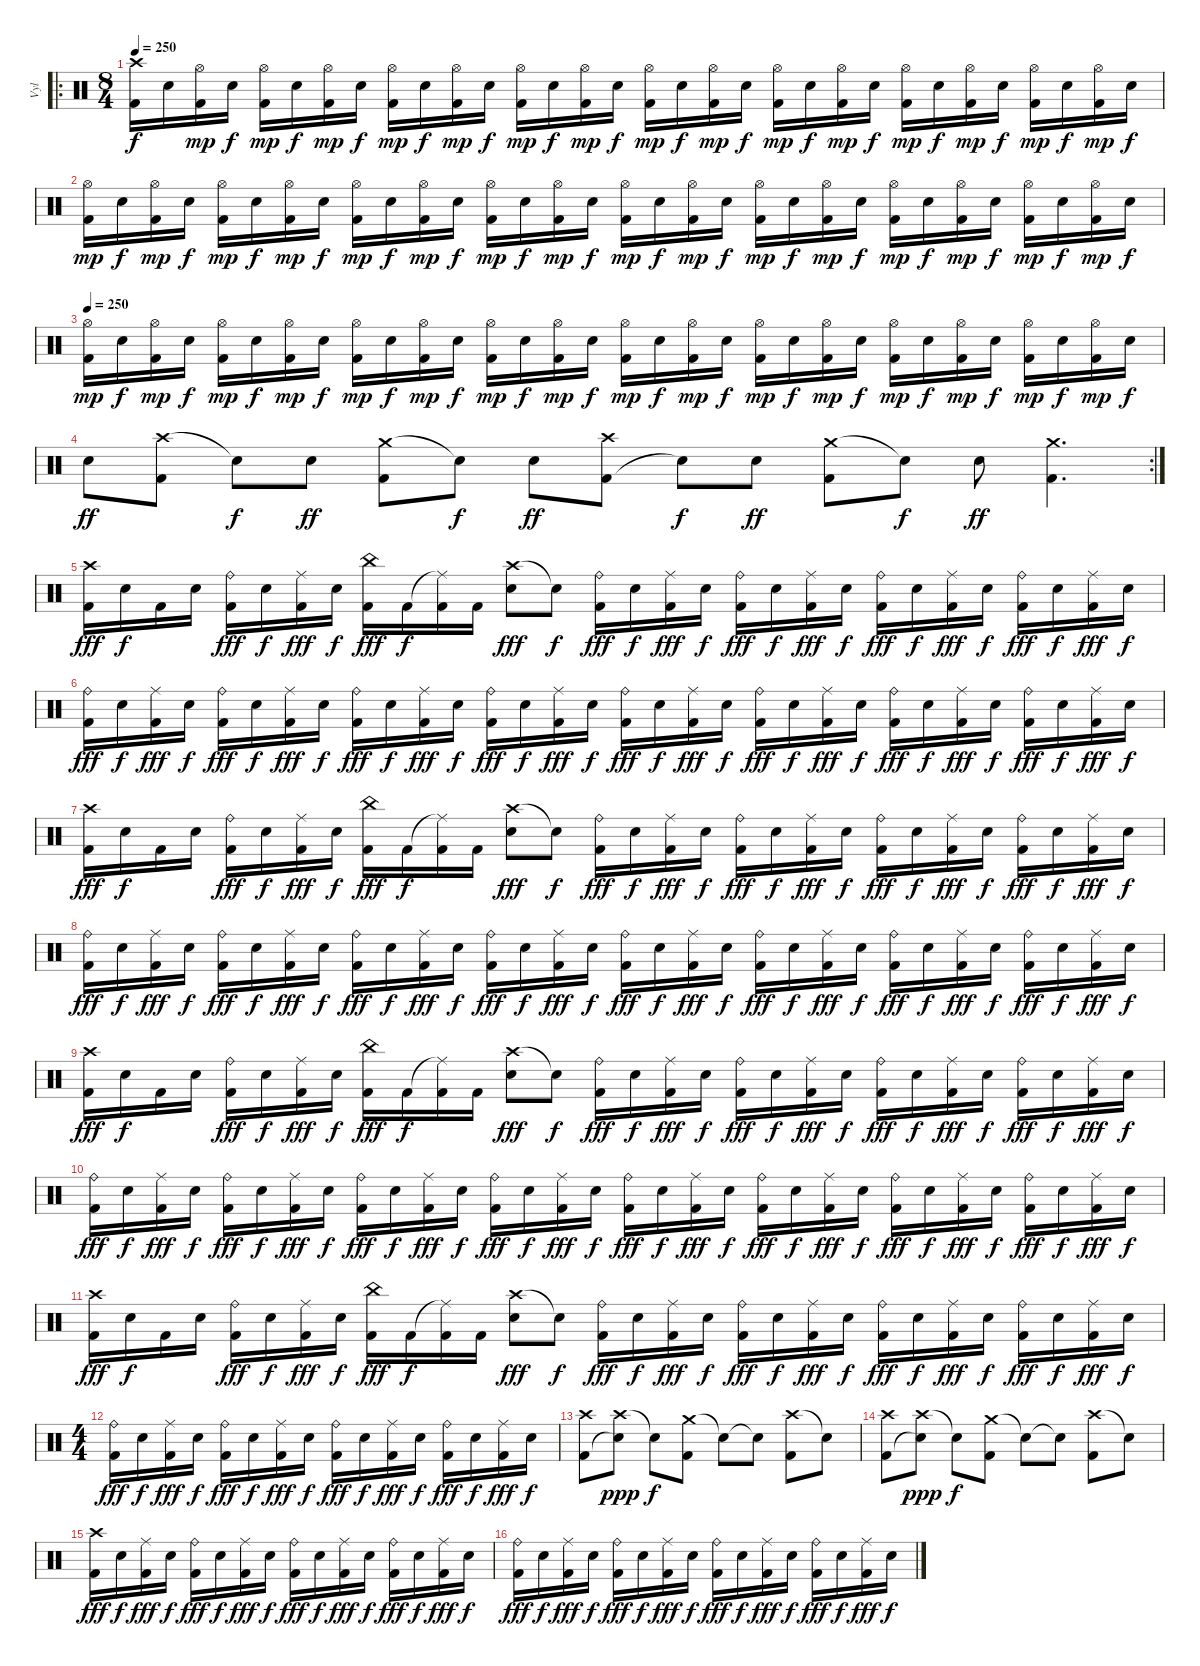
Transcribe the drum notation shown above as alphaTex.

\track ("Vyl" "Vyl") {instrument percussion}
\staff {score}
\articulation defaults
\ro
\ts (8 4)
\tempo 250
\clef neutral
\ks c
("Crash high (hit)" "Kick (hit) 2").16{dy f} "Snare (hit) 2".16 ("Hi-Hat (open)" "Kick (hit) 2").16{dy mp} "Snare (hit) 2".16{dy f} ("Hi-Hat (open)" "Kick (hit) 2").16{dy mp} "Snare (hit) 2".16{dy f} ("Hi-Hat (open)" "Kick (hit) 2").16{dy mp} "Snare (hit) 2".16{dy f} ("Hi-Hat (open)" "Kick (hit) 2").16{dy mp} "Snare (hit) 2".16{dy f} ("Hi-Hat (open)" "Kick (hit) 2").16{dy mp} "Snare (hit) 2".16{dy f} ("Hi-Hat (open)" "Kick (hit) 2").16{dy mp} "Snare (hit) 2".16{dy f} ("Hi-Hat (open)" "Kick (hit) 2").16{dy mp} "Snare (hit) 2".16{dy f} ("Hi-Hat (open)" "Kick (hit) 2").16{dy mp} "Snare (hit) 2".16{dy f} ("Hi-Hat (open)" "Kick (hit) 2").16{dy mp} "Snare (hit) 2".16{dy f} ("Hi-Hat (open)" "Kick (hit) 2").16{dy mp} "Snare (hit) 2".16{dy f} ("Hi-Hat (open)" "Kick (hit) 2").16{dy mp} "Snare (hit) 2".16{dy f} ("Hi-Hat (open)" "Kick (hit) 2").16{dy mp} "Snare (hit) 2".16{dy f} ("Hi-Hat (open)" "Kick (hit) 2").16{dy mp} "Snare (hit) 2".16{dy f} ("Hi-Hat (open)" "Kick (hit) 2").16{dy mp} "Snare (hit) 2".16{dy f} ("Hi-Hat (open)" "Kick (hit) 2").16{dy mp} "Snare (hit) 2".16{dy f} |
("Hi-Hat (open)" "Kick (hit) 2").16{dy mp} "Snare (hit) 2".16{dy f} ("Hi-Hat (open)" "Kick (hit) 2").16{dy mp} "Snare (hit) 2".16{dy f} ("Hi-Hat (open)" "Kick (hit) 2").16{dy mp} "Snare (hit) 2".16{dy f} ("Hi-Hat (open)" "Kick (hit) 2").16{dy mp} "Snare (hit) 2".16{dy f} ("Hi-Hat (open)" "Kick (hit) 2").16{dy mp} "Snare (hit) 2".16{dy f} ("Hi-Hat (open)" "Kick (hit) 2").16{dy mp} "Snare (hit) 2".16{dy f} ("Hi-Hat (open)" "Kick (hit) 2").16{dy mp} "Snare (hit) 2".16{dy f} ("Hi-Hat (open)" "Kick (hit) 2").16{dy mp} "Snare (hit) 2".16{dy f} ("Hi-Hat (open)" "Kick (hit) 2").16{dy mp} "Snare (hit) 2".16{dy f} ("Hi-Hat (open)" "Kick (hit) 2").16{dy mp} "Snare (hit) 2".16{dy f} ("Hi-Hat (open)" "Kick (hit) 2").16{dy mp} "Snare (hit) 2".16{dy f} ("Hi-Hat (open)" "Kick (hit) 2").16{dy mp} "Snare (hit) 2".16{dy f} ("Hi-Hat (open)" "Kick (hit) 2").16{dy mp} "Snare (hit) 2".16{dy f} ("Hi-Hat (open)" "Kick (hit) 2").16{dy mp} "Snare (hit) 2".16{dy f} ("Hi-Hat (open)" "Kick (hit) 2").16{dy mp} "Snare (hit) 2".16{dy f} ("Hi-Hat (open)" "Kick (hit) 2").16{dy mp} "Snare (hit) 2".16{dy f} |
\tempo 250
("Hi-Hat (open)" "Kick (hit) 2").16{dy mp} "Snare (hit) 2".16{dy f} ("Hi-Hat (open)" "Kick (hit) 2").16{dy mp} "Snare (hit) 2".16{dy f} ("Hi-Hat (open)" "Kick (hit) 2").16{dy mp} "Snare (hit) 2".16{dy f} ("Hi-Hat (open)" "Kick (hit) 2").16{dy mp} "Snare (hit) 2".16{dy f} ("Hi-Hat (open)" "Kick (hit) 2").16{dy mp} "Snare (hit) 2".16{dy f} ("Hi-Hat (open)" "Kick (hit) 2").16{dy mp} "Snare (hit) 2".16{dy f} ("Hi-Hat (open)" "Kick (hit) 2").16{dy mp} "Snare (hit) 2".16{dy f} ("Hi-Hat (open)" "Kick (hit) 2").16{dy mp} "Snare (hit) 2".16{dy f} ("Hi-Hat (open)" "Kick (hit) 2").16{dy mp} "Snare (hit) 2".16{dy f} ("Hi-Hat (open)" "Kick (hit) 2").16{dy mp} "Snare (hit) 2".16{dy f} ("Hi-Hat (open)" "Kick (hit) 2").16{dy mp} "Snare (hit) 2".16{dy f} ("Hi-Hat (open)" "Kick (hit) 2").16{dy mp} "Snare (hit) 2".16{dy f} ("Hi-Hat (open)" "Kick (hit) 2").16{dy mp} "Snare (hit) 2".16{dy f} ("Hi-Hat (open)" "Kick (hit) 2").16{dy mp} "Snare (hit) 2".16{dy f} ("Hi-Hat (open)" "Kick (hit) 2").16{dy mp} "Snare (hit) 2".16{dy f} ("Hi-Hat (open)" "Kick (hit) 2").16{dy mp} "Snare (hit) 2".16{dy f} |
\rc 2 "Snare (hit) 2".8{dy ff}
("Crash high (hit)" "Kick (hit) 2").8 "Snare (hit)"{t}.8{dy f} "Snare (hit) 2".8{dy ff} ("Crash medium (hit)" "Kick (hit) 2").8 "Snare (hit)"{t}.8{dy f} "Snare (hit) 2".8{dy ff} ("Kick (hit) 2" "Crash high (hit)").8 "Snare (hit)"{t}.8{dy f} "Snare (hit) 2".8{dy ff} ("Crash medium (hit)" "Kick (hit) 2").8 "Snare (hit) 2"{t}.8{dy f} "Snare (hit) 2".8{dy ff} ("Kick (hit) 2" "Crash medium (hit)").4{d} |
("Crash high (hit)" "Kick (hit) 2").16{dy fff} "Snare (hit) 2".16{dy f} "Kick (hit) 2".16 "Snare (hit) 2".16 ("Ride (bell)" "Kick (hit) 2").16{dy fff} "Snare (hit) 2".16{dy f} ("Ride (middle)" "Kick (hit) 2").16{dy fff} "Snare (hit) 2".16{dy f} ("China (hit)" "Kick (hit) 2").16{dy fff} "Kick (hit) 2".16{dy f} ("Ride (middle)"{t} "Kick (hit) 2").16 "Kick (hit) 2".16 ("Crash high (hit)" "Snare (hit) 2").8{dy fff} "Snare (hit) 2"{t}.8{dy f} ("Ride (bell)" "Kick (hit) 2").16{dy fff} "Snare (hit) 2".16{dy f} ("Ride (middle)" "Kick (hit) 2").16{dy fff} "Snare (hit) 2".16{dy f} ("Ride (bell)" "Kick (hit) 2").16{dy fff} "Snare (hit) 2".16{dy f} ("Ride (middle)" "Kick (hit) 2").16{dy fff} "Snare (hit) 2".16{dy f} ("Ride (bell)" "Kick (hit) 2").16{dy fff} "Snare (hit) 2".16{dy f} ("Ride (middle)" "Kick (hit) 2").16{dy fff} "Snare (hit) 2".16{dy f} ("Ride (bell)" "Kick (hit) 2").16{dy fff} "Snare (hit) 2".16{dy f} ("Ride (middle)" "Kick (hit) 2").16{dy fff} "Snare (hit) 2".16{dy f} |
("Ride (bell)" "Kick (hit) 2").16{dy fff} "Snare (hit) 2".16{dy f} ("Ride (middle)" "Kick (hit) 2").16{dy fff} "Snare (hit) 2".16{dy f} ("Ride (bell)" "Kick (hit) 2").16{dy fff} "Snare (hit) 2".16{dy f} ("Ride (middle)" "Kick (hit) 2").16{dy fff} "Snare (hit) 2".16{dy f} ("Ride (bell)" "Kick (hit) 2").16{dy fff} "Snare (hit) 2".16{dy f} ("Ride (middle)" "Kick (hit) 2").16{dy fff} "Snare (hit) 2".16{dy f} ("Ride (bell)" "Kick (hit) 2").16{dy fff} "Snare (hit) 2".16{dy f} ("Ride (middle)" "Kick (hit) 2").16{dy fff} "Snare (hit) 2".16{dy f} ("Ride (bell)" "Kick (hit) 2").16{dy fff} "Snare (hit) 2".16{dy f} ("Ride (middle)" "Kick (hit) 2").16{dy fff} "Snare (hit) 2".16{dy f} ("Ride (bell)" "Kick (hit) 2").16{dy fff} "Snare (hit) 2".16{dy f} ("Ride (middle)" "Kick (hit) 2").16{dy fff} "Snare (hit) 2".16{dy f} ("Ride (bell)" "Kick (hit) 2").16{dy fff} "Snare (hit) 2".16{dy f} ("Ride (middle)" "Kick (hit) 2").16{dy fff} "Snare (hit) 2".16{dy f} ("Ride (bell)" "Kick (hit) 2").16{dy fff} "Snare (hit) 2".16{dy f} ("Ride (middle)" "Kick (hit) 2").16{dy fff} "Snare (hit) 2".16{dy f} |
("Crash high (hit)" "Kick (hit) 2").16{dy fff} "Snare (hit) 2".16{dy f} "Kick (hit) 2".16 "Snare (hit) 2".16 ("Ride (bell)" "Kick (hit) 2").16{dy fff} "Snare (hit) 2".16{dy f} ("Ride (middle)" "Kick (hit) 2").16{dy fff} "Snare (hit) 2".16{dy f} ("China (hit)" "Kick (hit) 2").16{dy fff} "Kick (hit) 2".16{dy f} ("Ride (middle)"{t} "Kick (hit) 2").16 "Kick (hit) 2".16 ("Crash high (hit)" "Snare (hit) 2").8{dy fff} "Snare (hit) 2"{t}.8{dy f} ("Ride (bell)" "Kick (hit) 2").16{dy fff} "Snare (hit) 2".16{dy f} ("Ride (middle)" "Kick (hit) 2").16{dy fff} "Snare (hit) 2".16{dy f} ("Ride (bell)" "Kick (hit) 2").16{dy fff} "Snare (hit) 2".16{dy f} ("Ride (middle)" "Kick (hit) 2").16{dy fff} "Snare (hit) 2".16{dy f} ("Ride (bell)" "Kick (hit) 2").16{dy fff} "Snare (hit) 2".16{dy f} ("Ride (middle)" "Kick (hit) 2").16{dy fff} "Snare (hit) 2".16{dy f} ("Ride (bell)" "Kick (hit) 2").16{dy fff} "Snare (hit) 2".16{dy f} ("Ride (middle)" "Kick (hit) 2").16{dy fff} "Snare (hit) 2".16{dy f} |
("Ride (bell)" "Kick (hit) 2").16{dy fff} "Snare (hit) 2".16{dy f} ("Ride (middle)" "Kick (hit) 2").16{dy fff} "Snare (hit) 2".16{dy f} ("Ride (bell)" "Kick (hit) 2").16{dy fff} "Snare (hit) 2".16{dy f} ("Ride (middle)" "Kick (hit) 2").16{dy fff} "Snare (hit) 2".16{dy f} ("Ride (bell)" "Kick (hit) 2").16{dy fff} "Snare (hit) 2".16{dy f} ("Ride (middle)" "Kick (hit) 2").16{dy fff} "Snare (hit) 2".16{dy f} ("Ride (bell)" "Kick (hit) 2").16{dy fff} "Snare (hit) 2".16{dy f} ("Ride (middle)" "Kick (hit) 2").16{dy fff} "Snare (hit) 2".16{dy f} ("Ride (bell)" "Kick (hit) 2").16{dy fff} "Snare (hit) 2".16{dy f} ("Ride (middle)" "Kick (hit) 2").16{dy fff} "Snare (hit) 2".16{dy f} ("Ride (bell)" "Kick (hit) 2").16{dy fff} "Snare (hit) 2".16{dy f} ("Ride (middle)" "Kick (hit) 2").16{dy fff} "Snare (hit) 2".16{dy f} ("Ride (bell)" "Kick (hit) 2").16{dy fff} "Snare (hit) 2".16{dy f} ("Ride (middle)" "Kick (hit) 2").16{dy fff} "Snare (hit) 2".16{dy f} ("Ride (bell)" "Kick (hit) 2").16{dy fff} "Snare (hit) 2".16{dy f} ("Ride (middle)" "Kick (hit) 2").16{dy fff} "Snare (hit) 2".16{dy f} |
("Crash high (hit)" "Kick (hit) 2").16{dy fff} "Snare (hit) 2".16{dy f} "Kick (hit) 2".16 "Snare (hit) 2".16 ("Ride (bell)" "Kick (hit) 2").16{dy fff} "Snare (hit) 2".16{dy f} ("Ride (middle)" "Kick (hit) 2").16{dy fff} "Snare (hit) 2".16{dy f} ("China (hit)" "Kick (hit) 2").16{dy fff} "Kick (hit) 2".16{dy f} ("Ride (middle)"{t} "Kick (hit) 2").16 "Kick (hit) 2".16 ("Crash high (hit)" "Snare (hit) 2").8{dy fff} "Snare (hit) 2"{t}.8{dy f} ("Ride (bell)" "Kick (hit) 2").16{dy fff} "Snare (hit) 2".16{dy f} ("Ride (middle)" "Kick (hit) 2").16{dy fff} "Snare (hit) 2".16{dy f} ("Ride (bell)" "Kick (hit) 2").16{dy fff} "Snare (hit) 2".16{dy f} ("Ride (middle)" "Kick (hit) 2").16{dy fff} "Snare (hit) 2".16{dy f} ("Ride (bell)" "Kick (hit) 2").16{dy fff} "Snare (hit) 2".16{dy f} ("Ride (middle)" "Kick (hit) 2").16{dy fff} "Snare (hit) 2".16{dy f} ("Ride (bell)" "Kick (hit) 2").16{dy fff} "Snare (hit) 2".16{dy f} ("Ride (middle)" "Kick (hit) 2").16{dy fff} "Snare (hit) 2".16{dy f} |
("Ride (bell)" "Kick (hit) 2").16{dy fff} "Snare (hit) 2".16{dy f} ("Ride (middle)" "Kick (hit) 2").16{dy fff} "Snare (hit) 2".16{dy f} ("Ride (bell)" "Kick (hit) 2").16{dy fff} "Snare (hit) 2".16{dy f} ("Ride (middle)" "Kick (hit) 2").16{dy fff} "Snare (hit) 2".16{dy f} ("Ride (bell)" "Kick (hit) 2").16{dy fff} "Snare (hit) 2".16{dy f} ("Ride (middle)" "Kick (hit) 2").16{dy fff} "Snare (hit) 2".16{dy f} ("Ride (bell)" "Kick (hit) 2").16{dy fff} "Snare (hit) 2".16{dy f} ("Ride (middle)" "Kick (hit) 2").16{dy fff} "Snare (hit) 2".16{dy f} ("Ride (bell)" "Kick (hit) 2").16{dy fff} "Snare (hit) 2".16{dy f} ("Ride (middle)" "Kick (hit) 2").16{dy fff} "Snare (hit) 2".16{dy f} ("Ride (bell)" "Kick (hit) 2").16{dy fff} "Snare (hit) 2".16{dy f} ("Ride (middle)" "Kick (hit) 2").16{dy fff} "Snare (hit) 2".16{dy f} ("Ride (bell)" "Kick (hit) 2").16{dy fff} "Snare (hit) 2".16{dy f} ("Ride (middle)" "Kick (hit) 2").16{dy fff} "Snare (hit) 2".16{dy f} ("Ride (bell)" "Kick (hit) 2").16{dy fff} "Snare (hit) 2".16{dy f} ("Ride (middle)" "Kick (hit) 2").16{dy fff} "Snare (hit) 2".16{dy f} |
("Crash high (hit)" "Kick (hit) 2").16{dy fff} "Snare (hit) 2".16{dy f} "Kick (hit) 2".16 "Snare (hit) 2".16 ("Ride (bell)" "Kick (hit) 2").16{dy fff} "Snare (hit) 2".16{dy f} ("Ride (middle)" "Kick (hit) 2").16{dy fff} "Snare (hit) 2".16{dy f} ("China (hit)" "Kick (hit) 2").16{dy fff} "Kick (hit) 2".16{dy f} ("Ride (middle)"{t} "Kick (hit) 2").16 "Kick (hit) 2".16 ("Crash high (hit)" "Snare (hit) 2").8{dy fff} "Snare (hit) 2"{t}.8{dy f} ("Ride (bell)" "Kick (hit) 2").16{dy fff} "Snare (hit) 2".16{dy f} ("Ride (middle)" "Kick (hit) 2").16{dy fff} "Snare (hit) 2".16{dy f} ("Ride (bell)" "Kick (hit) 2").16{dy fff} "Snare (hit) 2".16{dy f} ("Ride (middle)" "Kick (hit) 2").16{dy fff} "Snare (hit) 2".16{dy f} ("Ride (bell)" "Kick (hit) 2").16{dy fff} "Snare (hit) 2".16{dy f} ("Ride (middle)" "Kick (hit) 2").16{dy fff} "Snare (hit) 2".16{dy f} ("Ride (bell)" "Kick (hit) 2").16{dy fff} "Snare (hit) 2".16{dy f} ("Ride (middle)" "Kick (hit) 2").16{dy fff} "Snare (hit) 2".16{dy f} |
\ts (4 4)
("Ride (bell)" "Kick (hit) 2").16{dy fff} "Snare (hit) 2".16{dy f} ("Ride (middle)" "Kick (hit) 2").16{dy fff} "Snare (hit) 2".16{dy f} ("Ride (bell)" "Kick (hit) 2").16{dy fff} "Snare (hit) 2".16{dy f} ("Ride (middle)" "Kick (hit) 2").16{dy fff} "Snare (hit) 2".16{dy f} ("Ride (bell)" "Kick (hit) 2").16{dy fff} "Snare (hit) 2".16{dy f} ("Ride (middle)" "Kick (hit) 2").16{dy fff} "Snare (hit) 2".16{dy f} ("Ride (bell)" "Kick (hit) 2").16{dy fff} "Snare (hit) 2".16{dy f} ("Ride (middle)" "Kick (hit) 2").16{dy fff} "Snare (hit) 2".16{dy f} |
("Crash high (hit)" "Kick (hit) 2").8 ("Crash high (hit)" "Snare (hit)"{t}).8{dy ppp} "Snare (hit)"{t}.8{dy f} ("Crash medium (hit)" "Kick (hit) 2").8 "Snare (hit)"{t}.8 "Snare (hit)"{t}.8 ("Crash high (hit)" "Kick (hit) 2").8 "Snare (hit)"{t}.8 |
("Crash high (hit)" "Kick (hit) 2").8 ("Crash high (hit)" "Snare (hit)"{t}).8{dy ppp} "Snare (hit)"{t}.8{dy f} ("Crash medium (hit)" "Kick (hit) 2").8 "Snare (hit)"{t}.8 "Snare (hit)"{t}.8 ("Crash high (hit)" "Kick (hit) 2").8 "Snare (hit)"{t}.8 |
("Crash high (hit)" "Kick (hit) 2").16{dy fff} "Snare (hit) 2".16{dy f} ("Ride (middle)" "Kick (hit) 2").16{dy fff} "Snare (hit) 2".16{dy f} ("Ride (bell)" "Kick (hit) 2").16{dy fff} "Snare (hit) 2".16{dy f} ("Ride (middle)" "Kick (hit) 2").16{dy fff} "Snare (hit) 2".16{dy f} ("Ride (bell)" "Kick (hit) 2").16{dy fff} "Snare (hit) 2".16{dy f} ("Ride (middle)" "Kick (hit) 2").16{dy fff} "Snare (hit) 2".16{dy f} ("Ride (bell)" "Kick (hit) 2").16{dy fff} "Snare (hit) 2".16{dy f} ("Ride (middle)" "Kick (hit) 2").16{dy fff} "Snare (hit) 2".16{dy f} |
("Ride (bell)" "Kick (hit) 2").16{dy fff} "Snare (hit) 2".16{dy f} ("Ride (middle)" "Kick (hit) 2").16{dy fff} "Snare (hit) 2".16{dy f} ("Ride (bell)" "Kick (hit) 2").16{dy fff} "Snare (hit) 2".16{dy f} ("Ride (middle)" "Kick (hit) 2").16{dy fff} "Snare (hit) 2".16{dy f} ("Ride (bell)" "Kick (hit) 2").16{dy fff} "Snare (hit) 2".16{dy f} ("Ride (middle)" "Kick (hit) 2").16{dy fff} "Snare (hit) 2".16{dy f} ("Ride (bell)" "Kick (hit) 2").16{dy fff} "Snare (hit) 2".16{dy f} ("Ride (middle)" "Kick (hit) 2").16{dy fff} "Snare (hit) 2".16{dy f}
